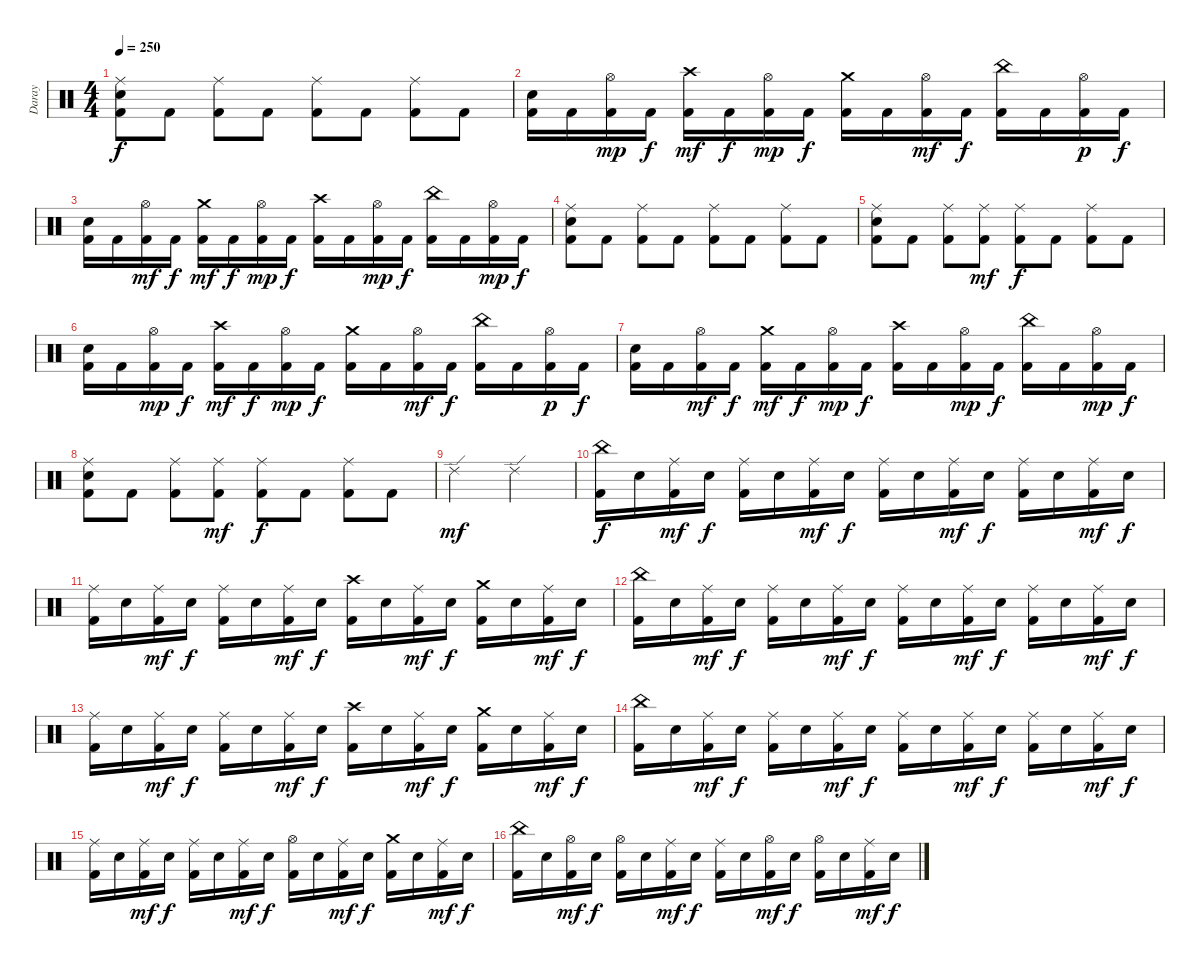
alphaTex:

\track ("Daray" "Daray") {instrument percussion}
\staff {score}
\articulation defaults
\ts (4 4)
\tempo 250
\clef neutral
\ks c
("Ride (middle)" "Electric Snare (hit)" "Kick (hit) 2").8{dy f} "Kick (hit) 2".8 ("Ride (middle)" "Kick (hit) 2").8 "Kick (hit) 2".8 ("Ride (middle)" "Kick (hit) 2").8 "Kick (hit) 2".8 ("Ride (middle)" "Kick (hit) 2").8 "Kick (hit) 2".8 |
("Electric Snare (hit)" "Kick (hit) 2").16 "Kick (hit) 2".16 ("Hi-Hat (open)" "Kick (hit) 2").16{dy mp} "Kick (hit) 2".16{dy f} ("Crash high (hit)" "Kick (hit) 2").16{dy mf} "Kick (hit) 2".16{dy f} ("Hi-Hat (open)" "Kick (hit) 2").16{dy mp} "Kick (hit) 2".16{dy f} ("Crash medium (hit)" "Kick (hit) 2").16 "Kick (hit) 2".16 ("Hi-Hat (open)" "Kick (hit) 2").16{dy mf} "Kick (hit) 2".16{dy f} ("China (hit)" "Kick (hit) 2").16 "Kick (hit) 2".16 ("Hi-Hat (open)" "Kick (hit) 2").16{dy p} "Kick (hit) 2".16{dy f} |
("Electric Snare (hit)" "Kick (hit) 2").16 "Kick (hit) 2".16 ("Hi-Hat (open)" "Kick (hit) 2").16{dy mf} "Kick (hit) 2".16{dy f} ("Crash medium (hit)" "Kick (hit) 2").16{dy mf} "Kick (hit) 2".16{dy f} ("Hi-Hat (open)" "Kick (hit) 2").16{dy mp} "Kick (hit) 2".16{dy f} ("Crash high (hit)" "Kick (hit) 2").16 "Kick (hit) 2".16 ("Hi-Hat (open)" "Kick (hit) 2").16{dy mp} "Kick (hit) 2".16{dy f} ("China (hit)" "Kick (hit) 2").16 "Kick (hit) 2".16 ("Hi-Hat (open)" "Kick (hit) 2").16{dy mp} "Kick (hit) 2".16{dy f} |
("Ride (middle)" "Electric Snare (hit)" "Kick (hit) 2").8 "Kick (hit) 2".8 ("Ride (middle)" "Kick (hit) 2").8 "Kick (hit) 2".8 ("Ride (middle)" "Kick (hit) 2").8 "Kick (hit) 2".8 ("Ride (middle)" "Kick (hit) 2").8 "Kick (hit) 2".8 |
("Ride (middle)" "Electric Snare (hit)" "Kick (hit) 2").8 "Kick (hit) 2".8 ("Ride (middle)" "Kick (hit) 2").8 ("Ride (middle)" "Kick (hit) 2").8{dy mf} ("Ride (middle)" "Kick (hit) 2").8{dy f} "Kick (hit) 2".8 ("Ride (middle)" "Kick (hit) 2").8 "Kick (hit) 2".8 |
("Electric Snare (hit)" "Kick (hit) 2").16 "Kick (hit) 2".16 ("Hi-Hat (open)" "Kick (hit) 2").16{dy mp} "Kick (hit) 2".16{dy f} ("Crash high (hit)" "Kick (hit) 2").16{dy mf} "Kick (hit) 2".16{dy f} ("Hi-Hat (open)" "Kick (hit) 2").16{dy mp} "Kick (hit) 2".16{dy f} ("Crash medium (hit)" "Kick (hit) 2").16 "Kick (hit) 2".16 ("Hi-Hat (open)" "Kick (hit) 2").16{dy mf} "Kick (hit) 2".16{dy f} ("China (hit)" "Kick (hit) 2").16 "Kick (hit) 2".16 ("Hi-Hat (open)" "Kick (hit) 2").16{dy p} "Kick (hit) 2".16{dy f} |
("Electric Snare (hit)" "Kick (hit) 2").16 "Kick (hit) 2".16 ("Hi-Hat (open)" "Kick (hit) 2").16{dy mf} "Kick (hit) 2".16{dy f} ("Crash medium (hit)" "Kick (hit) 2").16{dy mf} "Kick (hit) 2".16{dy f} ("Hi-Hat (open)" "Kick (hit) 2").16{dy mp} "Kick (hit) 2".16{dy f} ("Crash high (hit)" "Kick (hit) 2").16 "Kick (hit) 2".16 ("Hi-Hat (open)" "Kick (hit) 2").16{dy mp} "Kick (hit) 2".16{dy f} ("China (hit)" "Kick (hit) 2").16 "Kick (hit) 2".16 ("Hi-Hat (open)" "Kick (hit) 2").16{dy mp} "Kick (hit) 2".16{dy f} |
("Ride (middle)" "Electric Snare (hit)" "Kick (hit) 2").8 "Kick (hit) 2".8 ("Ride (middle)" "Kick (hit) 2").8 ("Ride (middle)" "Kick (hit) 2").8{dy mf} ("Ride (middle)" "Kick (hit) 2").8{dy f} "Kick (hit) 2".8 ("Ride (middle)" "Kick (hit) 2").8 "Kick (hit) 2".8 |
"Ride (edge) 2".2{dy mf} "Ride (edge) 2".2 |
("China (hit)" "Kick (hit) 2").16{dy f} "Electric Snare (hit)".16 ("Ride (middle)" "Kick (hit) 2").16{dy mf} "Electric Snare (hit)".16{dy f} ("Ride (middle)" "Kick (hit) 2").16 "Electric Snare (hit)".16 ("Ride (middle)" "Kick (hit) 2").16{dy mf} "Electric Snare (hit)".16{dy f} ("Ride (middle)" "Kick (hit) 2").16 "Electric Snare (hit)".16 ("Ride (middle)" "Kick (hit) 2").16{dy mf} "Electric Snare (hit)".16{dy f} ("Ride (middle)" "Kick (hit) 2").16 "Electric Snare (hit)".16 ("Ride (middle)" "Kick (hit) 2").16{dy mf} "Electric Snare (hit)".16{dy f} |
("Ride (middle)" "Kick (hit) 2").16 "Electric Snare (hit)".16 ("Ride (middle)" "Kick (hit) 2").16{dy mf} "Electric Snare (hit)".16{dy f} ("Ride (middle)" "Kick (hit) 2").16 "Electric Snare (hit)".16 ("Ride (middle)" "Kick (hit) 2").16{dy mf} "Electric Snare (hit)".16{dy f} ("Crash high (hit)" "Kick (hit) 2").16 "Electric Snare (hit)".16 ("Ride (middle)" "Kick (hit) 2").16{dy mf} "Electric Snare (hit)".16{dy f} ("Crash medium (hit)" "Kick (hit) 2").16 "Electric Snare (hit)".16 ("Ride (middle)" "Kick (hit) 2").16{dy mf} "Electric Snare (hit)".16{dy f} |
("China (hit)" "Kick (hit) 2").16 "Electric Snare (hit)".16 ("Ride (middle)" "Kick (hit) 2").16{dy mf} "Electric Snare (hit)".16{dy f} ("Ride (middle)" "Kick (hit) 2").16 "Electric Snare (hit)".16 ("Ride (middle)" "Kick (hit) 2").16{dy mf} "Electric Snare (hit)".16{dy f} ("Ride (middle)" "Kick (hit) 2").16 "Electric Snare (hit)".16 ("Ride (middle)" "Kick (hit) 2").16{dy mf} "Electric Snare (hit)".16{dy f} ("Ride (middle)" "Kick (hit) 2").16 "Electric Snare (hit)".16 ("Ride (middle)" "Kick (hit) 2").16{dy mf} "Electric Snare (hit)".16{dy f} |
("Ride (middle)" "Kick (hit) 2").16 "Electric Snare (hit)".16 ("Ride (middle)" "Kick (hit) 2").16{dy mf} "Electric Snare (hit)".16{dy f} ("Ride (middle)" "Kick (hit) 2").16 "Electric Snare (hit)".16 ("Ride (middle)" "Kick (hit) 2").16{dy mf} "Electric Snare (hit)".16{dy f} ("Crash high (hit)" "Kick (hit) 2").16 "Electric Snare (hit)".16 ("Ride (middle)" "Kick (hit) 2").16{dy mf} "Electric Snare (hit)".16{dy f} ("Crash medium (hit)" "Kick (hit) 2").16 "Electric Snare (hit)".16 ("Ride (middle)" "Kick (hit) 2").16{dy mf} "Electric Snare (hit)".16{dy f} |
("China (hit)" "Kick (hit) 2").16 "Electric Snare (hit)".16 ("Ride (middle)" "Kick (hit) 2").16{dy mf} "Electric Snare (hit)".16{dy f} ("Ride (middle)" "Kick (hit) 2").16 "Electric Snare (hit)".16 ("Ride (middle)" "Kick (hit) 2").16{dy mf} "Electric Snare (hit)".16{dy f} ("Ride (middle)" "Kick (hit) 2").16 "Electric Snare (hit)".16 ("Ride (middle)" "Kick (hit) 2").16{dy mf} "Electric Snare (hit)".16{dy f} ("Ride (middle)" "Kick (hit) 2").16 "Electric Snare (hit)".16 ("Ride (middle)" "Kick (hit) 2").16{dy mf} "Electric Snare (hit)".16{dy f} |
("Ride (middle)" "Kick (hit) 2").16 "Electric Snare (hit)".16 ("Ride (middle)" "Kick (hit) 2").16{dy mf} "Electric Snare (hit)".16{dy f} ("Ride (middle)" "Kick (hit) 2").16 "Electric Snare (hit)".16 ("Ride (middle)" "Kick (hit) 2").16{dy mf} "Electric Snare (hit)".16{dy f} ("Hi-Hat (open)" "Kick (hit) 2").16 "Electric Snare (hit)".16 ("Ride (middle)" "Kick (hit) 2").16{dy mf} "Electric Snare (hit)".16{dy f} ("Crash medium (hit)" "Kick (hit) 2").16 "Electric Snare (hit)".16 ("Ride (middle)" "Kick (hit) 2").16{dy mf} "Electric Snare (hit)".16{dy f} |
("China (hit)" "Kick (hit) 2").16 "Electric Snare (hit)".16 ("Hi-Hat (open)" "Kick (hit) 2").16{dy mf} "Electric Snare (hit)".16{dy f} ("Hi-Hat (open)" "Kick (hit) 2").16 "Electric Snare (hit)".16 ("Ride (middle)" "Kick (hit) 2").16{dy mf} "Electric Snare (hit)".16{dy f} ("Ride (middle)" "Kick (hit) 2").16 "Electric Snare (hit)".16 ("Hi-Hat (open)" "Kick (hit) 2").16{dy mf} "Electric Snare (hit)".16{dy f} ("Hi-Hat (open)" "Kick (hit) 2").16 "Electric Snare (hit)".16 ("Ride (middle)" "Kick (hit) 2").16{dy mf} "Electric Snare (hit)".16{dy f}
